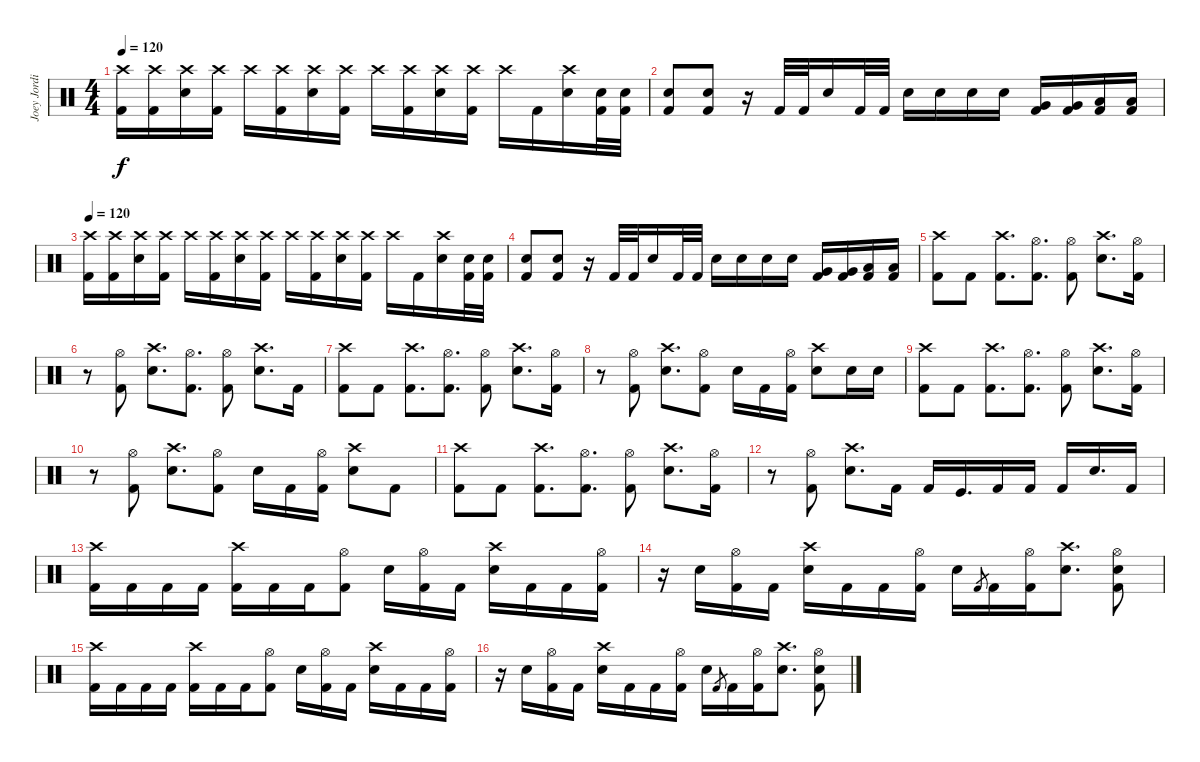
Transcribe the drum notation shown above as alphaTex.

\track ("Joey Jordison   #1" "Joey Jordi") {instrument percussion}
\staff {score}
\articulation defaults
\ts (4 4)
\tempo 120
\clef neutral
\ks c
("Crash high (hit)" "Kick (hit) 2").16{dy f} ("Crash high (hit)" "Kick (hit) 2").16 ("Crash high (hit)" "Electric Snare (hit)").16 ("Crash high (hit)" "Kick (hit) 2").16 "Crash high (hit)".16 ("Crash high (hit)" "Kick (hit) 2").16 ("Crash high (hit)" "Electric Snare (hit)").16 ("Crash high (hit)" "Kick (hit) 2").16 "Crash high (hit)".16 ("Crash high (hit)" "Kick (hit) 2").16 ("Crash high (hit)" "Electric Snare (hit)").16 ("Crash high (hit)" "Kick (hit) 2").16 "Crash high (hit)".16 "Kick (hit) 2".16 ("Crash high (hit)" "Electric Snare (hit)").16 ("Electric Snare (hit)" "Kick (hit) 2").32 ("Electric Snare (hit)" "Kick (hit) 2").32 |
("Electric Snare (hit)" "Kick (hit) 2").8 ("Electric Snare (hit)" "Kick (hit) 2").8 r.16 "Kick (hit) 2".32 "Kick (hit) 2".32 "Electric Snare (hit)".16 "Kick (hit) 2".32 "Kick (hit) 2".32 "Electric Snare (hit)".16 "Electric Snare (hit)".16 "Snare (hit) 2".16 "Snare (hit) 2".16 ("Very Low Tom (hit)" "Kick (hit) 2").16 ("Very Low Tom (hit)" "Kick (hit) 2").16 ("Low Floor Tom (hit)" "Kick (hit) 2").16 ("Low Floor Tom (hit)" "Kick (hit) 2").16 |
\tempo 120
("Crash high (hit)" "Kick (hit) 2").16 ("Crash high (hit)" "Kick (hit) 2").16 ("Crash high (hit)" "Electric Snare (hit)").16 ("Crash high (hit)" "Kick (hit) 2").16 "Crash high (hit)".16 ("Crash high (hit)" "Kick (hit) 2").16 ("Crash high (hit)" "Electric Snare (hit)").16 ("Crash high (hit)" "Kick (hit) 2").16 "Crash high (hit)".16 ("Crash high (hit)" "Kick (hit) 2").16 ("Crash high (hit)" "Electric Snare (hit)").16 ("Crash high (hit)" "Kick (hit) 2").16 "Crash high (hit)".16 "Kick (hit) 2".16 ("Crash high (hit)" "Electric Snare (hit)").16 ("Electric Snare (hit)" "Kick (hit) 2").32 ("Electric Snare (hit)" "Kick (hit) 2").32 |
("Electric Snare (hit)" "Kick (hit) 2").8 ("Electric Snare (hit)" "Kick (hit) 2").8 r.16 "Kick (hit) 2".32 "Kick (hit) 2".32 "Electric Snare (hit)".16 "Kick (hit) 2".32 "Kick (hit) 2".32 "Electric Snare (hit)".16 "Electric Snare (hit)".16 "Snare (hit) 2".16 "Snare (hit) 2".16 ("Very Low Tom (hit)" "Kick (hit) 2").16 ("Very Low Tom (hit)" "Kick (hit) 2").16 ("Low Floor Tom (hit)" "Kick (hit) 2").16 ("Low Floor Tom (hit)" "Kick (hit) 2").16 |
("Crash high (hit)" "Kick (hit) 2").8 "Kick (hit) 2".8 ("Crash high (hit)" "Kick (hit) 2").8{d} ("Hi-Hat (open)" "Kick (hit) 2").8{d} ("Hi-Hat (open)" "Kick (hit) 2").8 ("Crash high (hit)" "Electric Snare (hit)").8{d} ("Hi-Hat (open)" "Kick (hit) 2").16 |
r.8 ("Hi-Hat (open)" "Kick (hit) 2").8 ("Crash high (hit)" "Electric Snare (hit)").8{d} ("Hi-Hat (open)" "Kick (hit) 2").8{d} ("Hi-Hat (open)" "Kick (hit) 2").8 ("Crash high (hit)" "Electric Snare (hit)").8{d} "Kick (hit) 2".16 |
("Crash high (hit)" "Kick (hit) 2").8 "Kick (hit) 2".8 ("Crash high (hit)" "Kick (hit) 2").8{d} ("Hi-Hat (open)" "Kick (hit) 2").8{d} ("Hi-Hat (open)" "Kick (hit) 2").8 ("Crash high (hit)" "Electric Snare (hit)").8{d} ("Hi-Hat (open)" "Kick (hit) 2").16 |
r.8 ("Hi-Hat (open)" "Kick (hit) 2").8 ("Crash high (hit)" "Electric Snare (hit)").8{d} ("Hi-Hat (open)" "Kick (hit) 2").8 "Electric Snare (hit)".16 "Kick (hit) 2".16 ("Hi-Hat (open)" "Kick (hit) 2").16 ("Crash high (hit)" "Electric Snare (hit)").8 "Electric Snare (hit)".16 "Electric Snare (hit)".16 |
("Crash high (hit)" "Kick (hit) 2").8 "Kick (hit) 2".8 ("Crash high (hit)" "Kick (hit) 2").8{d} ("Hi-Hat (open)" "Kick (hit) 2").8{d} ("Hi-Hat (open)" "Kick (hit) 2").8 ("Crash high (hit)" "Electric Snare (hit)").8{d} ("Hi-Hat (open)" "Kick (hit) 2").16 |
r.8 ("Hi-Hat (open)" "Kick (hit) 2").8 ("Crash high (hit)" "Electric Snare (hit)").8{d} ("Hi-Hat (open)" "Kick (hit) 2").8 "Electric Snare (hit)".16 "Kick (hit) 2".16 ("Hi-Hat (open)" "Kick (hit) 2").16 ("Crash high (hit)" "Electric Snare (hit)").8 "Kick (hit) 2".8 |
("Crash high (hit)" "Kick (hit) 2").8 "Kick (hit) 2".8 ("Crash high (hit)" "Kick (hit) 2").8{d} ("Hi-Hat (open)" "Kick (hit) 2").8{d} ("Hi-Hat (open)" "Kick (hit) 2").8 ("Crash high (hit)" "Electric Snare (hit)").8{d} ("Hi-Hat (open)" "Kick (hit) 2").16 |
r.8 ("Hi-Hat (open)" "Kick (hit) 2").8 ("Crash high (hit)" "Electric Snare (hit)").8{d} "Kick (hit) 2".16 "Kick (hit) 2".16 "Kick (hit)".16{d} "Kick (hit) 2".16 "Kick (hit) 2".16 "Kick (hit) 2".16 "Electric Snare (hit)".16{d} "Kick (hit) 2".16 |
("Crash high (hit)" "Kick (hit) 2").16 "Kick (hit) 2".16 "Kick (hit) 2".16 "Kick (hit) 2".16 ("Crash high (hit)" "Kick (hit) 2").16 "Kick (hit) 2".16 "Kick (hit) 2".16 ("Hi-Hat (open)" "Kick (hit) 2").8 "Electric Snare (hit)".16 ("Hi-Hat (open)" "Kick (hit) 2").16 "Kick (hit) 2".16 ("Crash high (hit)" "Electric Snare (hit)").16 "Kick (hit) 2".16 "Kick (hit) 2".16 ("Hi-Hat (open)" "Kick (hit) 2").16 |
r.16 "Electric Snare (hit)".16 ("Hi-Hat (open)" "Kick (hit) 2").16 "Kick (hit) 2".16 ("Crash high (hit)" "Electric Snare (hit)").16 "Kick (hit) 2".16 "Kick (hit) 2".16 ("Hi-Hat (open)" "Kick (hit) 2").16 "Electric Snare (hit)".16 "Kick (hit) 2".8{gr} "Kick (hit) 2".16 ("Hi-Hat (open)" "Kick (hit) 2").16 ("Crash high (hit)" "Electric Snare (hit)").8{d} ("Hi-Hat (open)" "Electric Snare (hit)" "Kick (hit) 2").8 |
("Crash high (hit)" "Kick (hit) 2").16 "Kick (hit) 2".16 "Kick (hit) 2".16 "Kick (hit) 2".16 ("Crash high (hit)" "Kick (hit) 2").16 "Kick (hit) 2".16 "Kick (hit) 2".16 ("Hi-Hat (open)" "Kick (hit) 2").8 "Electric Snare (hit)".16 ("Hi-Hat (open)" "Kick (hit) 2").16 "Kick (hit) 2".16 ("Crash high (hit)" "Electric Snare (hit)").16 "Kick (hit) 2".16 "Kick (hit) 2".16 ("Hi-Hat (open)" "Kick (hit) 2").16 |
r.16 "Electric Snare (hit)".16 ("Hi-Hat (open)" "Kick (hit) 2").16 "Kick (hit) 2".16 ("Crash high (hit)" "Electric Snare (hit)").16 "Kick (hit) 2".16 "Kick (hit) 2".16 ("Hi-Hat (open)" "Kick (hit) 2").16 "Electric Snare (hit)".16 "Kick (hit) 2".8{gr} "Kick (hit) 2".16 ("Hi-Hat (open)" "Kick (hit) 2").16 ("Crash high (hit)" "Electric Snare (hit)").8{d} ("Hi-Hat (open)" "Electric Snare (hit)" "Kick (hit) 2").8
